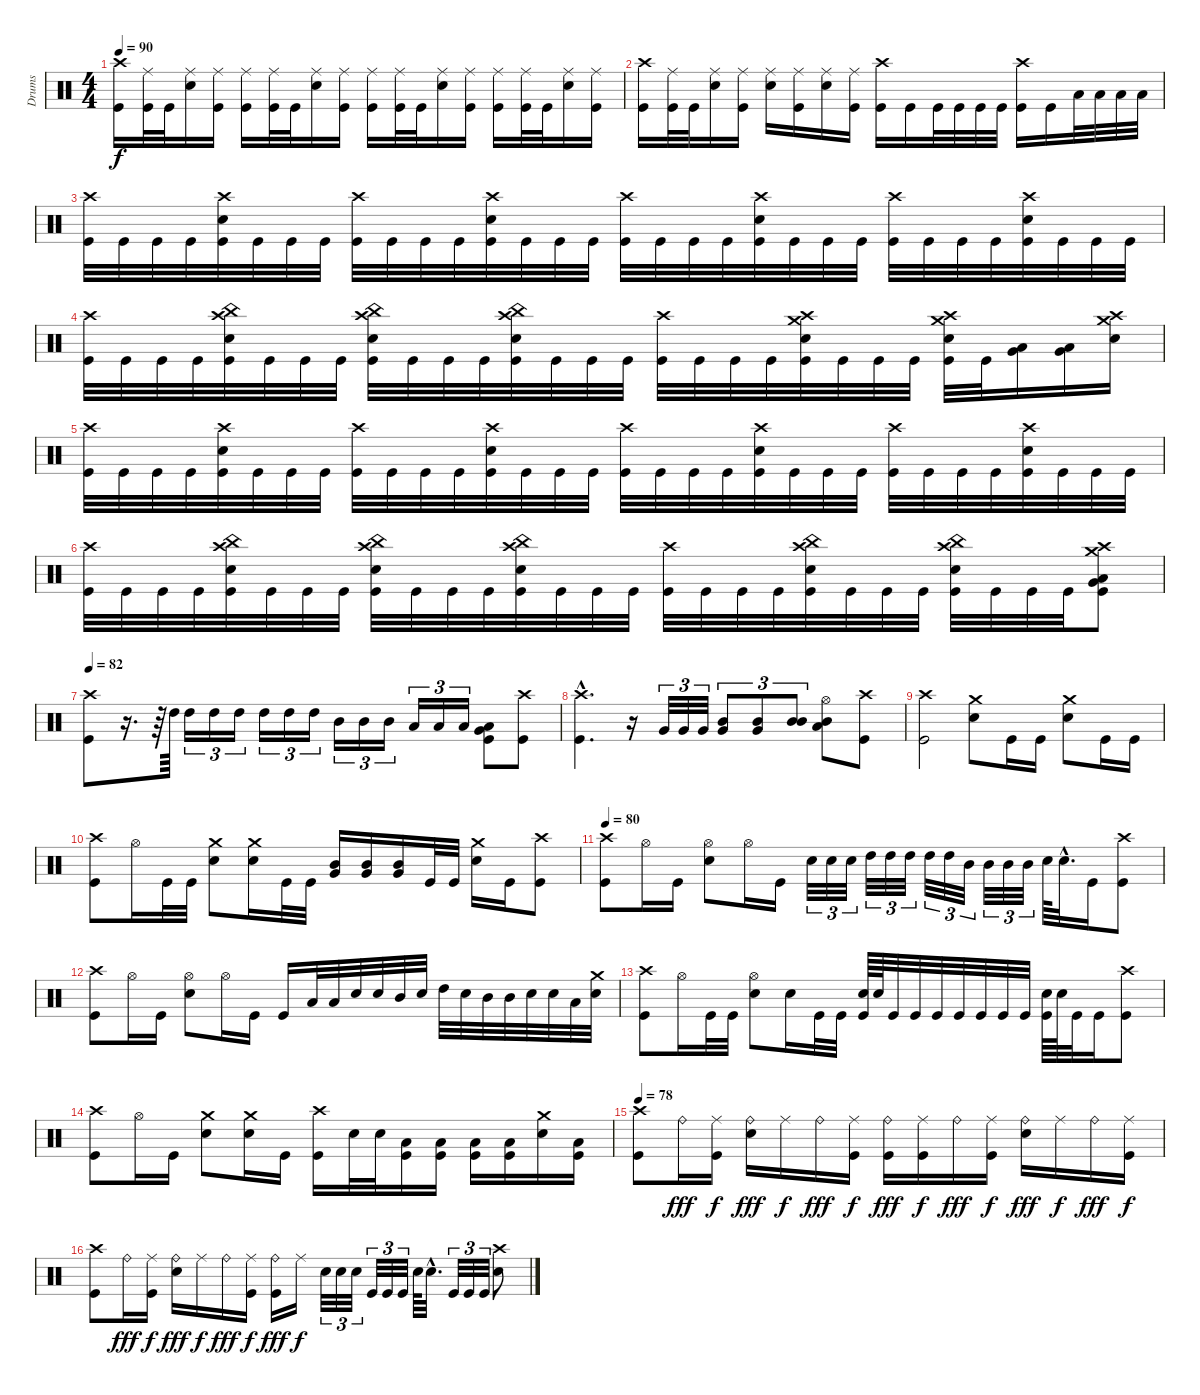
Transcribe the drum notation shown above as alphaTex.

\track ("Drums" "Drums") {instrument percussion}
\staff {score}
\articulation defaults
\ts (4 4)
\tempo 90
\clef neutral
\ks c
("Crash high (hit)" "Kick (hit)").16{dy f} ("Ride (middle)" "Kick (hit)").32 "Kick (hit)".32 ("Ride (middle)" "Electric Snare (hit)").16 ("Ride (middle)" "Kick (hit)").16 ("Ride (middle)" "Kick (hit)").16 ("Ride (middle)" "Kick (hit)").32 "Kick (hit)".32 ("Ride (middle)" "Electric Snare (hit)").16 ("Ride (middle)" "Kick (hit)").16 ("Ride (middle)" "Kick (hit)").16 ("Ride (middle)" "Kick (hit)").32 "Kick (hit)".32 ("Ride (middle)" "Electric Snare (hit)").16 ("Ride (middle)" "Kick (hit)").16 ("Ride (middle)" "Kick (hit)").16 ("Ride (middle)" "Kick (hit)").32 "Kick (hit)".32 ("Ride (middle)" "Electric Snare (hit)").16 ("Ride (middle)" "Kick (hit)").16 |
("Crash high (hit)" "Kick (hit)").16 ("Ride (middle)" "Kick (hit)").32 "Kick (hit)".32 ("Ride (middle)" "Electric Snare (hit)").16 ("Ride (middle)" "Kick (hit)").16 ("Ride (middle)" "Electric Snare (hit)").16 ("Ride (middle)" "Kick (hit)").16 ("Ride (middle)" "Electric Snare (hit)").16 ("Ride (middle)" "Kick (hit)").16 ("Crash high (hit)" "Kick (hit)").16 "Kick (hit)".16 "Kick (hit)".32 "Kick (hit)".32 "Kick (hit)".32 "Kick (hit)".32 ("Crash high (hit)" "Kick (hit)").16 "Kick (hit)".16 "Low Tom (hit)".32 "Low Tom (hit)".32 "Low Tom (hit)".32 "Low Tom (hit)".32 |
("Crash high (hit)" "Kick (hit)").32 "Kick (hit)".32 "Kick (hit)".32 "Kick (hit)".32 ("Crash high (hit)" "Electric Snare (hit)" "Kick (hit)").32 "Kick (hit)".32 "Kick (hit)".32 "Kick (hit)".32 ("Crash high (hit)" "Kick (hit)").32 "Kick (hit)".32 "Kick (hit)".32 "Kick (hit)".32 ("Crash high (hit)" "Electric Snare (hit)" "Kick (hit)").32 "Kick (hit)".32 "Kick (hit)".32 "Kick (hit)".32 ("Crash high (hit)" "Kick (hit)").32 "Kick (hit)".32 "Kick (hit)".32 "Kick (hit)".32 ("Crash high (hit)" "Electric Snare (hit)" "Kick (hit)").32 "Kick (hit)".32 "Kick (hit)".32 "Kick (hit)".32 ("Crash high (hit)" "Kick (hit)").32 "Kick (hit)".32 "Kick (hit)".32 "Kick (hit)".32 ("Crash high (hit)" "Electric Snare (hit)" "Kick (hit)").32 "Kick (hit)".32 "Kick (hit)".32 "Kick (hit)".32 |
("Crash high (hit)" "Kick (hit)").32 "Kick (hit)".32 "Kick (hit)".32 "Kick (hit)".32 ("Crash high (hit)" "China (hit)" "Electric Snare (hit)" "Kick (hit)").32 "Kick (hit)".32 "Kick (hit)".32 "Kick (hit)".32 ("Crash high (hit)" "China (hit)" "Electric Snare (hit)" "Kick (hit)").32 "Kick (hit)".32 "Kick (hit)".32 "Kick (hit)".32 ("Crash high (hit)" "China (hit)" "Electric Snare (hit)" "Kick (hit)").32 "Kick (hit)".32 "Kick (hit)".32 "Kick (hit)".32 ("Crash high (hit)" "Kick (hit)").32 "Kick (hit)".32 "Kick (hit)".32 "Kick (hit)".32 ("Crash high (hit)" "Crash medium (hit)" "Electric Snare (hit)" "Kick (hit)").32 "Kick (hit)".32 "Kick (hit)".32 "Kick (hit)".32 ("Crash high (hit)" "Crash medium (hit)" "Electric Snare (hit)" "Kick (hit)").32 "Kick (hit)".32 ("Low Tom (hit)" "Very Low Tom (hit)").16 ("Low Tom (hit)" "Very Low Tom (hit)").16 ("Crash high (hit)" "Crash medium (hit)" "Electric Snare (hit)").16 |
("Crash high (hit)" "Kick (hit)").32 "Kick (hit)".32 "Kick (hit)".32 "Kick (hit)".32 ("Crash high (hit)" "Electric Snare (hit)" "Kick (hit)").32 "Kick (hit)".32 "Kick (hit)".32 "Kick (hit)".32 ("Crash high (hit)" "Kick (hit)").32 "Kick (hit)".32 "Kick (hit)".32 "Kick (hit)".32 ("Crash high (hit)" "Electric Snare (hit)" "Kick (hit)").32 "Kick (hit)".32 "Kick (hit)".32 "Kick (hit)".32 ("Crash high (hit)" "Kick (hit)").32 "Kick (hit)".32 "Kick (hit)".32 "Kick (hit)".32 ("Crash high (hit)" "Electric Snare (hit)" "Kick (hit)").32 "Kick (hit)".32 "Kick (hit)".32 "Kick (hit)".32 ("Crash high (hit)" "Kick (hit)").32 "Kick (hit)".32 "Kick (hit)".32 "Kick (hit)".32 ("Crash high (hit)" "Electric Snare (hit)" "Kick (hit)").32 "Kick (hit)".32 "Kick (hit)".32 "Kick (hit)".32 |
("Crash high (hit)" "Kick (hit)").32 "Kick (hit)".32 "Kick (hit)".32 "Kick (hit)".32 ("Crash high (hit)" "China (hit)" "Electric Snare (hit)" "Kick (hit)").32 "Kick (hit)".32 "Kick (hit)".32 "Kick (hit)".32 ("Crash high (hit)" "China (hit)" "Electric Snare (hit)" "Kick (hit)").32 "Kick (hit)".32 "Kick (hit)".32 "Kick (hit)".32 ("Crash high (hit)" "China (hit)" "Electric Snare (hit)" "Kick (hit)").32 "Kick (hit)".32 "Kick (hit)".32 "Kick (hit)".32 ("Crash high (hit)" "Kick (hit)").32 "Kick (hit)".32 "Kick (hit)".32 "Kick (hit)".32 ("Crash high (hit)" "China (hit)" "Electric Snare (hit)" "Kick (hit)").32 "Kick (hit)".32 "Kick (hit)".32 "Kick (hit)".32 ("Crash high (hit)" "China (hit)" "Electric Snare (hit)" "Kick (hit)").32 "Kick (hit)".32 "Kick (hit)".32 "Kick (hit)".32 ("Crash high (hit)" "Crash medium (hit)" "Low Tom (hit)" "Very Low Tom (hit)" "Kick (hit)").8 |
\tempo 82
("Crash high (hit)" "Kick (hit)").8 r.16{d} r.64{balance 16} "High Tom (hit)".64{balance 0} "High Tom (hit)".16{tu (3 2)} "High Tom (hit)".16{tu (3 2)} "High Tom (hit)".16{tu (3 2)} "High Tom (hit)".16{tu (3 2)} "High Tom (hit)".16{tu (3 2)} "High Tom (hit)".16{tu (3 2)} "Mid Tom (hit)".16{tu (3 2)} "Mid Tom (hit)".16{tu (3 2)} "Mid Tom (hit)".16{tu (3 2)} "Low Tom (hit)".16{tu (3 2)} "Low Tom (hit)".16{tu (3 2)} "Low Tom (hit)".16{tu (3 2)} ("Low Tom (hit)" "Very Low Tom (hit)" "Kick (hit)").8 ("Crash high (hit)" "Kick (hit)").8{balance 8} |
("Crash high (hit)"{hac} "Kick (hit)"{hac}).4{d} r.16 "Very Low Tom (hit)".32{tu (3 2)} "Very Low Tom (hit)".32{tu (3 2)} "Very Low Tom (hit)".32{tu (3 2)} ("Mid Tom (hit)" "Very Low Tom (hit)").8{tu (3 2)} ("Mid Tom (hit)" "Very Low Tom (hit)").8{tu (3 2)} ("Mid Tom (hit)" "Mid Tom (hit)").8{tu (3 2)} ("Hi-Hat (open)" "Mid Tom (hit)" "Low Tom (hit)").8 ("Crash high (hit)" "Kick (hit)").8 |
("Crash high (hit)" "Kick (hit)").2 ("Crash medium (hit)" "Electric Snare (hit)").8 "Kick (hit)".16 "Kick (hit)".16 ("Crash medium (hit)" "Electric Snare (hit)").8 "Kick (hit)".16 "Kick (hit)".16 |
("Crash high (hit)" "Kick (hit)").8 "Hi-Hat (open)".16 "Kick (hit)".32 "Kick (hit)".32 ("Crash medium (hit)" "Electric Snare (hit)").8 ("Crash medium (hit)" "Electric Snare (hit)").16 "Kick (hit)".32 "Kick (hit)".32 ("Mid Tom (hit)" "Very Low Tom (hit)").16 ("Mid Tom (hit)" "Very Low Tom (hit)").16 ("Mid Tom (hit)" "Very Low Tom (hit)").16 "Kick (hit)".32 "Kick (hit)".32 ("Crash medium (hit)" "Electric Snare (hit)").16 "Kick (hit)".16 ("Crash high (hit)" "Kick (hit)").8 |
\tempo 80
("Crash high (hit)" "Kick (hit)").8 "Hi-Hat (open)".16 "Kick (hit)".16 ("Hi-Hat (open)" "Electric Snare (hit)").8 "Hi-Hat (open)".16 "Kick (hit)".16 "Electric Snare (hit)".32{tu (3 2)} "Electric Snare (hit)".32{tu (3 2)} "Electric Snare (hit)".32{tu (3 2)} "High Tom (hit)".32{tu (3 2)} "High Tom (hit)".32{tu (3 2)} "High Tom (hit)".32{tu (3 2)} "High Tom (hit)".32{tu (3 2)} "High Tom (hit)".32{tu (3 2)} "Mid Tom (hit)".32{tu (3 2)} "Mid Tom (hit)".32{tu (3 2)} "Mid Tom (hit)".32{tu (3 2)} "Mid Tom (hit)".32{tu (3 2)} "Electric Snare (hit)".64 "Electric Snare (hit)"{hac}.32{d} "Kick (hit)".16 ("Crash high (hit)" "Kick (hit)").8 |
("Crash high (hit)" "Kick (hit)").8 "Hi-Hat (open)".16 "Kick (hit)".16 ("Hi-Hat (open)" "Electric Snare (hit)").8 "Hi-Hat (open)".16 "Kick (hit)".16 "Kick (hit)".16 "Low Tom (hit)".32 "Low Tom (hit)".32 "Electric Snare (hit)".32 "Electric Snare (hit)".32 "Mid Tom (hit)".32 "Electric Snare (hit)".32 "High Tom (hit)".32 "Electric Snare (hit)".32 "Mid Tom (hit)".32 "Mid Tom (hit)".32 "Electric Snare (hit)".32 "Electric Snare (hit)".32 "Low Tom (hit)".32 ("Crash medium (hit)" "Electric Snare (hit)").32 |
("Crash high (hit)" "Kick (hit)").8 "Hi-Hat (open)".16 "Kick (hit)".32 "Kick (hit)".32 ("Hi-Hat (open)" "Electric Snare (hit)").8 "Electric Snare (hit)".16 "Kick (hit)".32 "Kick (hit)".32 ("Electric Snare (hit)" "Kick (hit)").64 "Electric Snare (hit)".64 "Kick (hit)".32 "Kick (hit)".32 "Kick (hit)".32 "Kick (hit)".32 "Kick (hit)".32 "Kick (hit)".32 "Kick (hit)".32 ("Electric Snare (hit)" "Kick (hit)").64 "Electric Snare (hit)".64 "Kick (hit)".32 "Kick (hit)".16 ("Crash high (hit)" "Kick (hit)").8 |
("Crash high (hit)" "Kick (hit)").8 "Hi-Hat (open)".16 "Kick (hit)".16 ("Crash medium (hit)" "Electric Snare (hit)").8 ("Crash medium (hit)" "Electric Snare (hit)").16 "Kick (hit)".16 ("Crash high (hit)" "Kick (hit)").16 "Electric Snare (hit)".32 "Electric Snare (hit)".32 ("Low Tom (hit)" "Kick (hit)").16 ("Low Tom (hit)" "Kick (hit)").16 ("Low Tom (hit)" "Kick (hit)").16 ("Low Tom (hit)" "Kick (hit)").16 ("Crash medium (hit)" "Electric Snare (hit)").16 ("Low Tom (hit)" "Kick (hit)").16 |
\tempo 78
("Crash high (hit)" "Kick (hit)").8 "Ride (bell)".16{dy fff} ("Ride (middle)" "Kick (hit)").16{dy f} ("Ride (bell)" "Electric Snare (hit)").16{dy fff} "Ride (middle)".16{dy f} "Ride (bell)".16{dy fff} ("Ride (middle)" "Kick (hit)").16{dy f} ("Ride (bell)" "Kick (hit)").16{dy fff} ("Ride (middle)" "Kick (hit)").16{dy f} "Ride (bell)".16{dy fff} ("Ride (middle)" "Kick (hit)").16{dy f} ("Ride (bell)" "Electric Snare (hit)").16{dy fff} "Ride (middle)".16{dy f} "Ride (bell)".16{dy fff} ("Ride (middle)" "Kick (hit)").16{dy f} |
("Crash high (hit)" "Kick (hit)").8 "Ride (bell)".16{dy fff} ("Ride (middle)" "Kick (hit)").16{dy f} ("Ride (bell)" "Electric Snare (hit)").16{dy fff} "Ride (middle)".16{dy f} "Ride (bell)".16{dy fff} ("Ride (middle)" "Kick (hit)").16{dy f} ("Ride (bell)" "Kick (hit)").16{dy fff} "Ride (middle)".16{dy f} "Electric Snare (hit)".32{tu (3 2)} "Electric Snare (hit)".32{tu (3 2)} "Electric Snare (hit)".32{tu (3 2)} "Kick (hit)".32{tu (3 2)} "Kick (hit)".32{tu (3 2)} "Kick (hit)".32{tu (3 2)} "Electric Snare (hit)".64 "Electric Snare (hit)"{hac}.32{d} "Kick (hit)".32{tu (3 2)} "Kick (hit)".32{tu (3 2)} "Kick (hit)".32{tu (3 2)} ("Crash high (hit)" "Electric Snare (hit)").8
